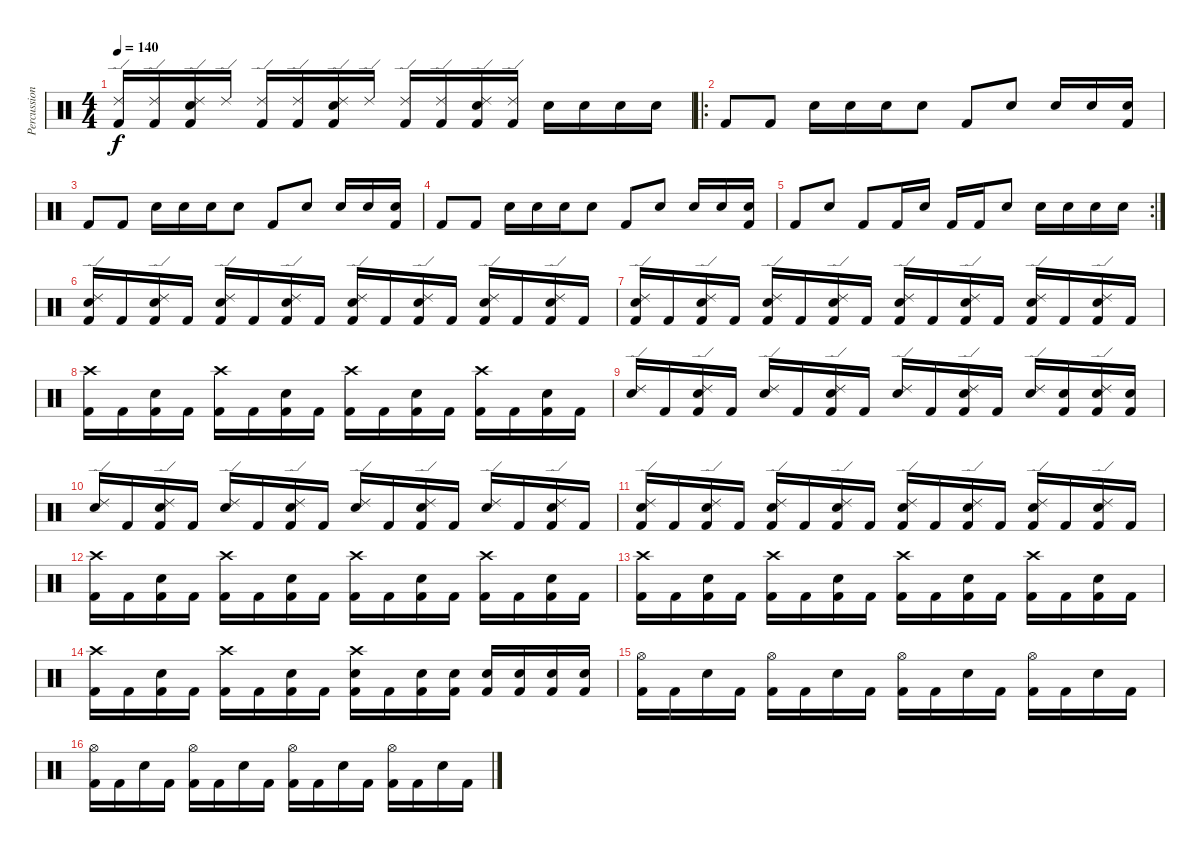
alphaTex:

\track ("Percussion" "Percussion") {instrument percussion}
\staff {score}
\articulation defaults
\ts (4 4)
\tempo 140
\clef neutral
\ks c
("Kick (hit) 2" "Ride (edge) 2").16{dy f} ("Kick (hit) 2" "Ride (edge) 2").16 ("Kick (hit) 2" "Electric Snare (hit)" "Ride (edge) 2").16 "Ride (edge) 2".16 ("Kick (hit) 2" "Ride (edge) 2").16 ("Kick (hit) 2" "Ride (edge) 2").16 ("Kick (hit) 2" "Electric Snare (hit)" "Ride (edge) 2").16 "Ride (edge) 2".16 ("Kick (hit) 2" "Ride (edge) 2").16 ("Kick (hit) 2" "Ride (edge) 2").16 ("Kick (hit) 2" "Electric Snare (hit)" "Ride (edge) 2").16 ("Kick (hit) 2" "Ride (edge) 2").16 "Electric Snare (hit)".16 "Electric Snare (hit)".16 "Electric Snare (hit)".16 "Electric Snare (hit)".16 |
\ro "Kick (hit) 2".8 "Kick (hit) 2".8 "Electric Snare (hit)".16 "Electric Snare (hit)".16 "Electric Snare (hit)".16 "Electric Snare (hit)".8 "Kick (hit) 2".8 "Electric Snare (hit)".8 "Electric Snare (hit)".16 "Electric Snare (hit)".16
("Kick (hit) 2" "Electric Snare (hit)").16 |
"Kick (hit) 2".8 "Kick (hit) 2".8 "Electric Snare (hit)".16 "Electric Snare (hit)".16 "Electric Snare (hit)".16 "Electric Snare (hit)".8 "Kick (hit) 2".8 "Electric Snare (hit)".8 "Electric Snare (hit)".16 "Electric Snare (hit)".16 ("Kick (hit) 2" "Electric Snare (hit)").16 |
"Kick (hit) 2".8 "Kick (hit) 2".8 "Electric Snare (hit)".16 "Electric Snare (hit)".16 "Electric Snare (hit)".16 "Electric Snare (hit)".8 "Kick (hit) 2".8 "Electric Snare (hit)".8 "Electric Snare (hit)".16 "Electric Snare (hit)".16 ("Kick (hit) 2" "Electric Snare (hit)").16 |
\rc 2 "Kick (hit) 2".8 "Electric Snare (hit)".8 "Kick (hit) 2".8 "Kick (hit) 2".16 "Electric Snare (hit)".16 "Kick (hit) 2".16 "Kick (hit) 2".16 "Electric Snare (hit)".8 "Electric Snare (hit)".16 "Electric Snare (hit)".16 "Electric Snare (hit)".16 "Electric Snare (hit)".16
|
("Kick (hit) 2" "Electric Snare (hit)" "Ride (edge) 2").16 "Kick (hit) 2".16 ("Kick (hit) 2" "Electric Snare (hit)" "Ride (edge) 2").16 "Kick (hit) 2".16 ("Kick (hit) 2" "Electric Snare (hit)" "Ride (edge) 2").16 "Kick (hit) 2".16 ("Kick (hit) 2" "Electric Snare (hit)" "Ride (edge) 2").16 "Kick (hit) 2".16 ("Kick (hit) 2" "Electric Snare (hit)" "Ride (edge) 2").16 "Kick (hit) 2".16 ("Kick (hit) 2" "Electric Snare (hit)" "Ride (edge) 2").16 "Kick (hit) 2".16 ("Kick (hit) 2" "Electric Snare (hit)" "Ride (edge) 2").16 "Kick (hit) 2".16 ("Kick (hit) 2" "Electric Snare (hit)" "Ride (edge) 2").16 "Kick (hit) 2".16 |
("Kick (hit) 2" "Electric Snare (hit)" "Ride (edge) 2").16 "Kick (hit) 2".16 ("Kick (hit) 2" "Electric Snare (hit)" "Ride (edge) 2").16 "Kick (hit) 2".16 ("Kick (hit) 2" "Electric Snare (hit)" "Ride (edge) 2").16 "Kick (hit) 2".16 ("Kick (hit) 2" "Electric Snare (hit)" "Ride (edge) 2").16 "Kick (hit) 2".16 ("Kick (hit) 2" "Electric Snare (hit)" "Ride (edge) 2").16 "Kick (hit) 2".16 ("Kick (hit) 2" "Electric Snare (hit)" "Ride (edge) 2").16 "Kick (hit) 2".16 ("Kick (hit) 2" "Electric Snare (hit)" "Ride (edge) 2").16 "Kick (hit) 2".16 ("Kick (hit) 2" "Electric Snare (hit)" "Ride (edge) 2").16 "Kick (hit) 2".16 |
("Kick (hit) 2" "Crash high (hit)").16 "Kick (hit) 2".16 ("Kick (hit) 2" "Electric Snare (hit)").16 "Kick (hit) 2".16 ("Kick (hit) 2" "Crash high (hit)").16 "Kick (hit) 2".16 ("Kick (hit) 2" "Electric Snare (hit)").16 "Kick (hit) 2".16 ("Kick (hit) 2" "Crash high (hit)").16 "Kick (hit) 2".16 ("Kick (hit) 2" "Electric Snare (hit)").16 "Kick (hit) 2".16 ("Kick (hit) 2" "Crash high (hit)").16 "Kick (hit) 2".16 ("Kick (hit) 2" "Electric Snare (hit)").16 "Kick (hit) 2".16 |
("Electric Snare (hit)" "Ride (edge) 2").16 "Kick (hit) 2".16 ("Kick (hit) 2" "Electric Snare (hit)" "Ride (edge) 2").16 "Kick (hit) 2".16 ("Electric Snare (hit)" "Ride (edge) 2").16 "Kick (hit) 2".16 ("Kick (hit) 2" "Electric Snare (hit)" "Ride (edge) 2").16 "Kick (hit) 2".16 ("Electric Snare (hit)" "Ride (edge) 2").16 "Kick (hit) 2".16 ("Kick (hit) 2" "Electric Snare (hit)" "Ride (edge) 2").16 "Kick (hit) 2".16 ("Electric Snare (hit)" "Ride (edge) 2").16 ("Kick (hit) 2" "Electric Snare (hit)").16 ("Kick (hit) 2" "Electric Snare (hit)" "Ride (edge) 2").16 ("Kick (hit) 2" "Electric Snare (hit)").16 |
("Electric Snare (hit)" "Ride (edge) 2").16 "Kick (hit) 2".16 ("Kick (hit) 2" "Electric Snare (hit)" "Ride (edge) 2").16 "Kick (hit) 2".16 ("Electric Snare (hit)" "Ride (edge) 2").16 "Kick (hit) 2".16 ("Kick (hit) 2" "Electric Snare (hit)" "Ride (edge) 2").16 "Kick (hit) 2".16 ("Electric Snare (hit)" "Ride (edge) 2").16 "Kick (hit) 2".16 ("Kick (hit) 2" "Electric Snare (hit)" "Ride (edge) 2").16 "Kick (hit) 2".16 ("Electric Snare (hit)" "Ride (edge) 2").16 "Kick (hit) 2".16 ("Kick (hit) 2" "Electric Snare (hit)" "Ride (edge) 2").16 "Kick (hit) 2".16 |
("Kick (hit) 2" "Electric Snare (hit)" "Ride (edge) 2").16 "Kick (hit) 2".16 ("Kick (hit) 2" "Electric Snare (hit)" "Ride (edge) 2").16 "Kick (hit) 2".16 ("Kick (hit) 2" "Electric Snare (hit)" "Ride (edge) 2").16 "Kick (hit) 2".16 ("Kick (hit) 2" "Electric Snare (hit)" "Ride (edge) 2").16 "Kick (hit) 2".16 ("Kick (hit) 2" "Electric Snare (hit)" "Ride (edge) 2").16 "Kick (hit) 2".16 ("Kick (hit) 2" "Electric Snare (hit)" "Ride (edge) 2").16 "Kick (hit) 2".16 ("Kick (hit) 2" "Electric Snare (hit)" "Ride (edge) 2").16 "Kick (hit) 2".16 ("Kick (hit) 2" "Electric Snare (hit)" "Ride (edge) 2").16 "Kick (hit) 2".16 |
("Kick (hit) 2" "Crash high (hit)").16 "Kick (hit) 2".16 ("Kick (hit) 2" "Electric Snare (hit)").16 "Kick (hit) 2".16 ("Kick (hit) 2" "Crash high (hit)").16 "Kick (hit) 2".16 ("Kick (hit) 2" "Electric Snare (hit)").16 "Kick (hit) 2".16 ("Kick (hit) 2" "Crash high (hit)").16 "Kick (hit) 2".16 ("Kick (hit) 2" "Electric Snare (hit)").16 "Kick (hit) 2".16 ("Kick (hit) 2" "Crash high (hit)").16 "Kick (hit) 2".16 ("Kick (hit) 2" "Electric Snare (hit)").16 "Kick (hit) 2".16 |
("Kick (hit) 2" "Crash high (hit)").16 "Kick (hit) 2".16 ("Kick (hit) 2" "Electric Snare (hit)").16 "Kick (hit) 2".16 ("Kick (hit) 2" "Crash high (hit)").16 "Kick (hit) 2".16 ("Kick (hit) 2" "Electric Snare (hit)").16 "Kick (hit) 2".16 ("Kick (hit) 2" "Crash high (hit)").16 "Kick (hit) 2".16 ("Kick (hit) 2" "Electric Snare (hit)").16 "Kick (hit) 2".16 ("Kick (hit) 2" "Crash high (hit)").16 "Kick (hit) 2".16 ("Kick (hit) 2" "Electric Snare (hit)").16 "Kick (hit) 2".16 |
("Kick (hit) 2" "Crash high (hit)").16 "Kick (hit) 2".16 ("Kick (hit) 2" "Electric Snare (hit)").16 "Kick (hit) 2".16 ("Kick (hit) 2" "Crash high (hit)").16 "Kick (hit) 2".16 ("Kick (hit) 2" "Electric Snare (hit)").16 "Kick (hit) 2".16 ("Kick (hit) 2" "Electric Snare (hit)" "Crash high (hit)").16 "Kick (hit) 2".16 ("Kick (hit) 2" "Electric Snare (hit)").16 ("Kick (hit) 2" "Electric Snare (hit)").16 ("Kick (hit) 2" "Electric Snare (hit)").16 ("Kick (hit) 2" "Electric Snare (hit)").16 ("Kick (hit) 2" "Electric Snare (hit)").16 ("Kick (hit) 2" "Electric Snare (hit)").16 |
("Kick (hit) 2" "Hi-Hat (open)").16 "Kick (hit) 2".16 "Electric Snare (hit)".16 "Kick (hit) 2".16 ("Kick (hit) 2" "Hi-Hat (open)").16 "Kick (hit) 2".16 "Electric Snare (hit)".16 "Kick (hit) 2".16 ("Kick (hit) 2" "Hi-Hat (open)").16 "Kick (hit) 2".16 "Electric Snare (hit)".16 "Kick (hit) 2".16 ("Kick (hit) 2" "Hi-Hat (open)").16 "Kick (hit) 2".16 "Electric Snare (hit)".16 "Kick (hit) 2".16 |
("Kick (hit) 2" "Hi-Hat (open)").16 "Kick (hit) 2".16 "Electric Snare (hit)".16 "Kick (hit) 2".16 ("Kick (hit) 2" "Hi-Hat (open)").16 "Kick (hit) 2".16 "Electric Snare (hit)".16 "Kick (hit) 2".16 ("Kick (hit) 2" "Hi-Hat (open)").16 "Kick (hit) 2".16 "Electric Snare (hit)".16 "Kick (hit) 2".16 ("Kick (hit) 2" "Hi-Hat (open)").16 "Kick (hit) 2".16 "Electric Snare (hit)".16 "Kick (hit) 2".16
